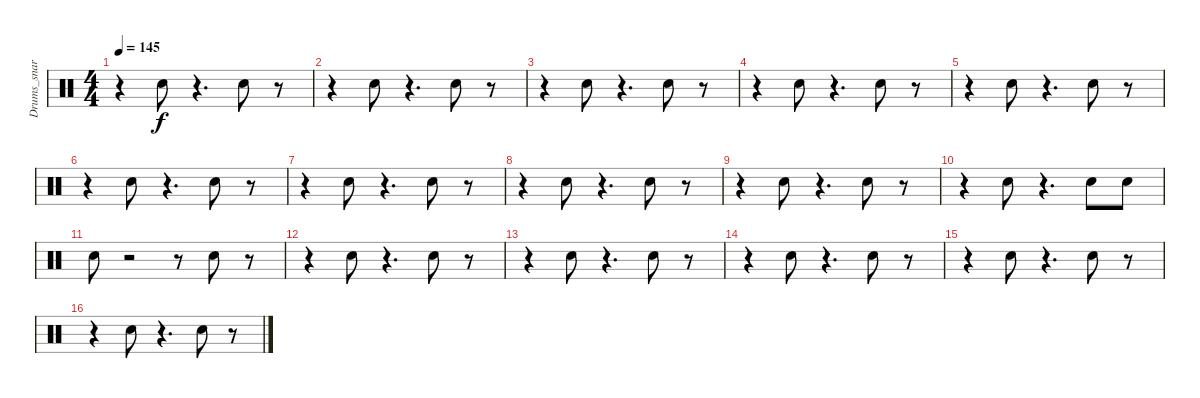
\track ("Drums_snare&tom" "Drums_snar") {instrument percussion}
\staff {score}
\articulation defaults
\ts (4 4)
\tempo 145
\clef neutral
\ks c
r.4{dy f} "Electric Snare (hit)".8 r.4{d} "Electric Snare (hit)".8 r.8 |
r.4 "Electric Snare (hit)".8 r.4{d} "Electric Snare (hit)".8 r.8 |
r.4 "Electric Snare (hit)".8 r.4{d} "Electric Snare (hit)".8 r.8 |
r.4 "Electric Snare (hit)".8 r.4{d} "Electric Snare (hit)".8 r.8 |
r.4 "Electric Snare (hit)".8 r.4{d} "Electric Snare (hit)".8 r.8 |
r.4 "Electric Snare (hit)".8 r.4{d} "Electric Snare (hit)".8 r.8 |
r.4 "Electric Snare (hit)".8 r.4{d} "Electric Snare (hit)".8 r.8 |
r.4 "Electric Snare (hit)".8 r.4{d} "Electric Snare (hit)".8 r.8 |
r.4 "Electric Snare (hit)".8 r.4{d} "Electric Snare (hit)".8 r.8 |
r.4 "Electric Snare (hit)".8 r.4{d} "Electric Snare (hit)".8 "Electric Snare (hit)".8 |
"Electric Snare (hit)".8 r.2 r.8 "Electric Snare (hit)".8 r.8 |
r.4 "Electric Snare (hit)".8 r.4{d} "Electric Snare (hit)".8 r.8 |
r.4 "Electric Snare (hit)".8 r.4{d} "Electric Snare (hit)".8 r.8 |
r.4 "Electric Snare (hit)".8 r.4{d} "Electric Snare (hit)".8 r.8 |
r.4 "Electric Snare (hit)".8 r.4{d} "Electric Snare (hit)".8 r.8 |
r.4 "Electric Snare (hit)".8 r.4{d} "Electric Snare (hit)".8 r.8
